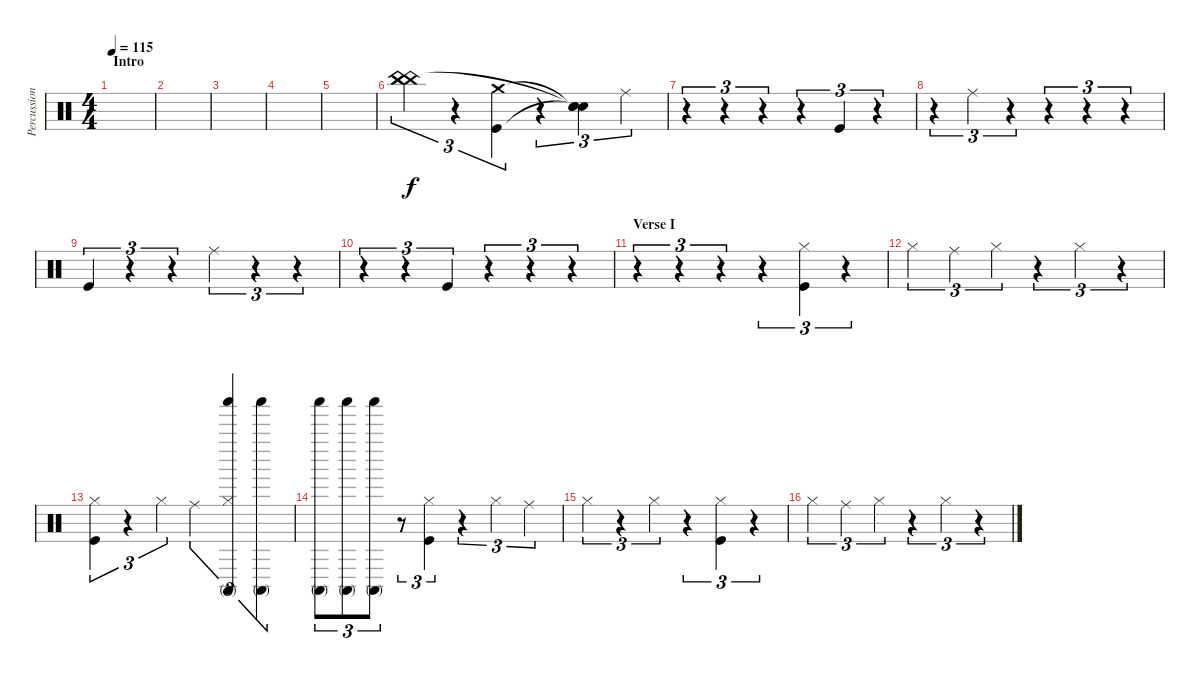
\track ("Percussion" "Percussion") {instrument percussion}
\staff {score}
\articulation defaults
\ts (4 4)
\section ("" "Intro")
\tempo 115
\clef neutral
\ks c
|
|
|
|
|
("China (hit)" "China (hit)" "China (hit)").4{tu (3 2) volume 15} r.4{tu (3 2)} ("Crash medium (hit)" "Kick (hit)").4{tu (3 2)} r.4{tu (3 2)} ("Snare (hit)"{t} "Snare (hit)"{t} "Snare (hit)"{t}).4{tu (3 2)} "Ride (middle)".4{tu (3 2)} |
r.4{tu (3 2)} r.4{tu (3 2)} r.4{tu (3 2)} r.4{tu (3 2)} "Kick (hit)".4{tu (3 2)} r.4{tu (3 2)} |
r.4{tu (3 2)} "Ride (middle)".4{tu (3 2)} r.4{tu (3 2)} r.4{tu (3 2)} r.4{tu (3 2)} r.4{tu (3 2)} |
"Kick (hit)".4{tu (3 2)} r.4{tu (3 2)} r.4{tu (3 2)} "Ride (middle)".4{tu (3 2)} r.4{tu (3 2)} r.4{tu (3 2)} |
r.4{tu (3 2)} r.4{tu (3 2)} "Kick (hit)".4{tu (3 2)} r.4{tu (3 2)} r.4{tu (3 2)} r.4{tu (3 2)} |
\section ("" "Verse I")
r.4{tu (3 2)} r.4{tu (3 2)} r.4{tu (3 2)} r.4{tu (3 2)} ("Hi-Hat (closed)" "Kick (hit)").4{tu (3 2)} r.4{tu (3 2)} |
"Hi-Hat (closed)".4{tu (3 2)} "Ride (middle)".4{tu (3 2)} "Hi-Hat (closed)".4{tu (3 2)} r.4{tu (3 2)} "Hi-Hat (closed)".4{tu (3 2)} r.4{tu (3 2)} |
("Hi-Hat (closed)" "Kick (hit)").4{tu (3 2)} r.4{tu (3 2)} "Hi-Hat (closed)".4{tu (3 2)} "Ride (middle)".4{tu (3 2)} ("Hi-Hat (closed)" "Shaker (hit)" "Conga high (mute)").4{tu (3 2)} ("Shaker (hit)" "Conga high (mute)").4{tu (3 2)} |
("Shaker (hit)" "Conga high (mute)").8{tu (3 2)} ("Shaker (hit)" "Conga high (mute)").8{tu (3 2)} ("Shaker (hit)" "Conga high (mute)").8{tu (3 2)} r.8{tu (3 2)} ("Hi-Hat (closed)" "Kick (hit)").4{tu (3 2)} r.4{tu (3 2)} "Hi-Hat (closed)".4{tu (3 2)} "Ride (middle)".4{tu (3 2)} |
"Hi-Hat (closed)".4{tu (3 2)} r.4{tu (3 2)} "Hi-Hat (closed)".4{tu (3 2)} r.4{tu (3 2)} ("Hi-Hat (closed)" "Kick (hit)").4{tu (3 2)} r.4{tu (3 2)} |
"Hi-Hat (closed)".4{tu (3 2)} "Ride (middle)".4{tu (3 2)} "Hi-Hat (closed)".4{tu (3 2)} r.4{tu (3 2)} "Hi-Hat (closed)".4{tu (3 2)} r.4{tu (3 2)}
